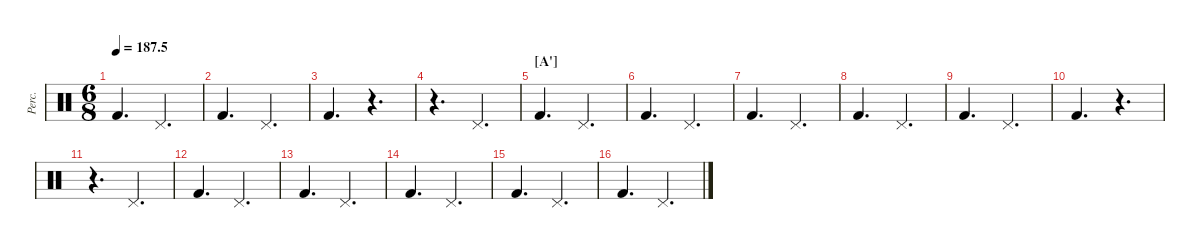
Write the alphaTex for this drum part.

\defaultSystemsLayout 4
\hideDynamics
\bracketExtendMode groupsimilarinstruments
\otherSystemsTrackNameOrientation horizontal
\track ("Percussions" "Perc.") {instrument percussion}
\staff {score}
\articulation defaults
\ts (6 8)
\tempo
187.5
\accidentals auto
\clef neutral
\ottava regular
\simile none
\ks c "Kick (hit) 2".4{d dy mf beam Up} "Pedal Hi-Hat (hit)".4{d beam Up}
|
"Kick (hit) 2".4{d beam Up} "Pedal Hi-Hat (hit)".4{d beam Up} |
"Kick (hit) 2".4{d beam Up} r.4{d beam Up} |
r.4{d beam Down} "Pedal Hi-Hat (hit)".4{d beam Up} |
\section ("A'" "")
"Kick (hit) 2".4{d beam Up} "Pedal Hi-Hat (hit)".4{d beam Up} |
"Kick (hit) 2".4{d beam Up} "Pedal Hi-Hat (hit)".4{d beam Up} |
"Kick (hit) 2".4{d beam Up} "Pedal Hi-Hat (hit)".4{d beam Up} |
"Kick (hit) 2".4{d beam Up} "Pedal Hi-Hat (hit)".4{d beam Up} |
"Kick (hit) 2".4{d beam Up} "Pedal Hi-Hat (hit)".4{d beam Up} |
"Kick (hit) 2".4{d beam Up} r.4{d beam Up} |
r.4{d beam Down} "Pedal Hi-Hat (hit)".4{d beam Up} |
"Kick (hit) 2".4{d beam Up} "Pedal Hi-Hat (hit)".4{d beam Up} |
"Kick (hit) 2".4{d beam Up} "Pedal Hi-Hat (hit)".4{d beam Up} |
"Kick (hit) 2".4{d beam Up} "Pedal Hi-Hat (hit)".4{d beam Up} |
"Kick (hit) 2".4{d beam Up} "Pedal Hi-Hat (hit)".4{d beam Up} |
"Kick (hit) 2".4{d beam Up} "Pedal Hi-Hat (hit)".4{d beam Up}
